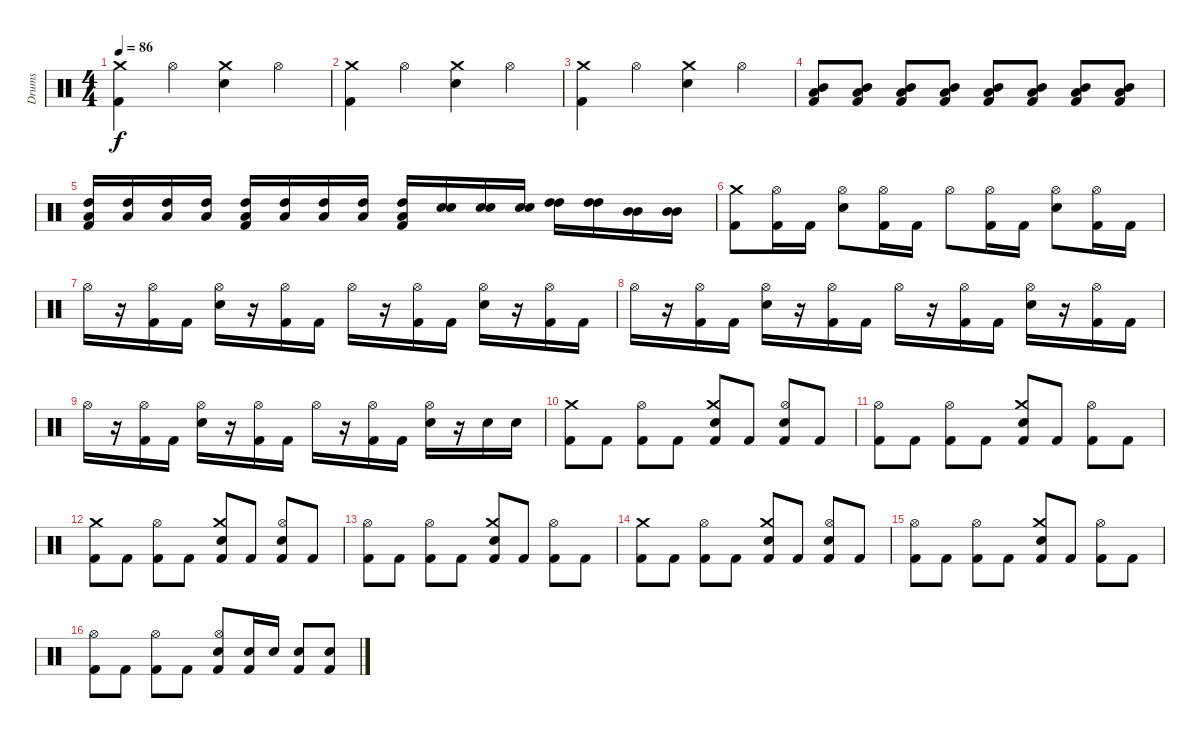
\track ("Drums" "Drums") {instrument percussion}
\staff {score}
\articulation defaults
\ts (4 4)
\tempo 86
\clef neutral
\ks c
("Kick (hit) 2" "Crash medium (hit)").4{dy f} "Hi-Hat (open)".4 ("Snare (hit) 2" "Crash medium (hit)").4 "Hi-Hat (open)".4 |
("Kick (hit) 2" "Crash medium (hit)").4 "Hi-Hat (open)".4 ("Snare (hit) 2" "Crash medium (hit)").4 "Hi-Hat (open)".4 |
("Kick (hit) 2" "Crash medium (hit)").4 "Hi-Hat (open)".4 ("Snare (hit) 2" "Crash medium (hit)").4 "Hi-Hat (open)".4 |
("Mid Tom (hit)" "Low Tom (hit)" "Kick (hit) 2").8 ("Mid Tom (hit)" "Low Tom (hit)" "Kick (hit) 2").8 ("Low Tom (hit)" "Mid Tom (hit)" "Kick (hit) 2").8 ("Mid Tom (hit)" "Low Tom (hit)" "Kick (hit) 2").8 ("Mid Tom (hit)" "Low Tom (hit)" "Kick (hit) 2").8 ("Mid Tom (hit)" "Low Tom (hit)" "Kick (hit) 2").8 ("Mid Tom (hit)" "Low Tom (hit)" "Kick (hit) 2").8 ("Mid Tom (hit)" "Low Tom (hit)" "Kick (hit) 2").8 |
("High Tom (hit)" "Low Tom (hit)" "Kick (hit) 2").16 ("High Tom (hit)" "Low Tom (hit)").16 ("High Tom (hit)" "Low Tom (hit)").16 ("High Tom (hit)" "Low Tom (hit)").16 ("Low Tom (hit)" "High Tom (hit)" "Kick (hit) 2").16 ("High Tom (hit)" "Low Tom (hit)").16 ("High Tom (hit)" "Low Tom (hit)").16 ("High Tom (hit)" "Low Tom (hit)").16 ("High Tom (hit)" "Low Tom (hit)" "Kick (hit) 2").16 ("Snare (hit) 2" "Snare (hit) 2").16 ("Snare (hit) 2" "Snare (hit) 2").16 ("Snare (hit) 2" "Snare (hit) 2").16 ("High Tom (hit)" "High Tom (hit)").16 ("High Tom (hit)" "High Tom (hit)").16 ("Mid Tom (hit)" "Mid Tom (hit)").16 ("Mid Tom (hit)" "Mid Tom (hit)").16 |
("Kick (hit) 2" "Crash medium (hit)").8 ("Kick (hit) 2" "Hi-Hat (open)").16 "Kick (hit) 2".16 ("Snare (hit) 2" "Hi-Hat (open)").8 ("Kick (hit) 2" "Hi-Hat (open)").16 "Kick (hit) 2".16 "Hi-Hat (open)".8 ("Kick (hit) 2" "Hi-Hat (open)").16 "Kick (hit) 2".16 ("Snare (hit) 2" "Hi-Hat (open)").8 ("Kick (hit) 2" "Hi-Hat (open)").16 "Kick (hit) 2".16 |
"Hi-Hat (open)".16 r.16 ("Kick (hit) 2" "Hi-Hat (open)").16 "Kick (hit) 2".16 ("Snare (hit) 2" "Hi-Hat (open)").16 r.16 ("Kick (hit) 2" "Hi-Hat (open)").16 "Kick (hit) 2".16 "Hi-Hat (open)".16 r.16 ("Kick (hit) 2" "Hi-Hat (open)").16 "Kick (hit) 2".16 ("Snare (hit) 2" "Hi-Hat (open)").16 r.16 ("Kick (hit) 2" "Hi-Hat (open)").16 "Kick (hit) 2".16 |
"Hi-Hat (open)".16 r.16 ("Kick (hit) 2" "Hi-Hat (open)").16 "Kick (hit) 2".16 ("Snare (hit) 2" "Hi-Hat (open)").16 r.16 ("Kick (hit) 2" "Hi-Hat (open)").16 "Kick (hit) 2".16 "Hi-Hat (open)".16 r.16 ("Kick (hit) 2" "Hi-Hat (open)").16 "Kick (hit) 2".16 ("Snare (hit) 2" "Hi-Hat (open)").16 r.16 ("Kick (hit) 2" "Hi-Hat (open)").16 "Kick (hit) 2".16 |
"Hi-Hat (open)".16 r.16 ("Kick (hit) 2" "Hi-Hat (open)").16 "Kick (hit) 2".16 ("Snare (hit) 2" "Hi-Hat (open)").16 r.16 ("Kick (hit) 2" "Hi-Hat (open)").16 "Kick (hit) 2".16 "Hi-Hat (open)".16 r.16 ("Kick (hit) 2" "Hi-Hat (open)").16 "Kick (hit) 2".16 ("Snare (hit) 2" "Hi-Hat (open)").16 r.16 "Snare (hit) 2".16 "Snare (hit) 2".16 |
("Kick (hit) 2" "Crash medium (hit)").8 "Kick (hit) 2".8 ("Kick (hit) 2" "Hi-Hat (open)").8 "Kick (hit) 2".8 ("Snare (hit) 2" "Kick (hit) 2" "Crash medium (hit)").8 "Kick (hit) 2".8 ("Snare (hit) 2" "Kick (hit) 2" "Hi-Hat (open)").8 "Kick (hit) 2".8 |
("Kick (hit) 2" "Hi-Hat (open)").8 "Kick (hit) 2".8 ("Kick (hit) 2" "Hi-Hat (open)").8 "Kick (hit) 2".8 ("Snare (hit) 2" "Kick (hit) 2" "Crash medium (hit)").8 "Kick (hit) 2".8 ("Kick (hit) 2" "Hi-Hat (open)").8 "Kick (hit) 2".8 |
("Kick (hit) 2" "Crash medium (hit)").8 "Kick (hit) 2".8 ("Kick (hit) 2" "Hi-Hat (open)").8 "Kick (hit) 2".8 ("Snare (hit) 2" "Kick (hit) 2" "Crash medium (hit)").8 "Kick (hit) 2".8 ("Snare (hit) 2" "Kick (hit) 2" "Hi-Hat (open)").8 "Kick (hit) 2".8 |
("Kick (hit) 2" "Hi-Hat (open)").8 "Kick (hit) 2".8 ("Kick (hit) 2" "Hi-Hat (open)").8 "Kick (hit) 2".8 ("Snare (hit) 2" "Kick (hit) 2" "Crash medium (hit)").8 "Kick (hit) 2".8 ("Kick (hit) 2" "Hi-Hat (open)").8 "Kick (hit) 2".8 |
("Kick (hit) 2" "Crash medium (hit)").8 "Kick (hit) 2".8 ("Kick (hit) 2" "Hi-Hat (open)").8 "Kick (hit) 2".8 ("Snare (hit) 2" "Kick (hit) 2" "Crash medium (hit)").8 "Kick (hit) 2".8 ("Snare (hit) 2" "Kick (hit) 2" "Hi-Hat (open)").8 "Kick (hit) 2".8 |
("Kick (hit) 2" "Hi-Hat (open)").8 "Kick (hit) 2".8 ("Kick (hit) 2" "Hi-Hat (open)").8 "Kick (hit) 2".8 ("Snare (hit) 2" "Kick (hit) 2" "Crash medium (hit)").8 "Kick (hit) 2".8 ("Kick (hit) 2" "Hi-Hat (open)").8 "Kick (hit) 2".8 |
("Hi-Hat (open)" "Kick (hit) 2").8 "Kick (hit) 2".8 ("Hi-Hat (open)" "Kick (hit) 2").8 "Kick (hit) 2".8 ("Snare (hit) 2" "Hi-Hat (open)" "Kick (hit) 2").8 ("Snare (hit) 2" "Kick (hit) 2").16 "Snare (hit) 2".16 ("Snare (hit) 2" "Kick (hit) 2").8 ("Snare (hit) 2" "Kick (hit) 2").8
